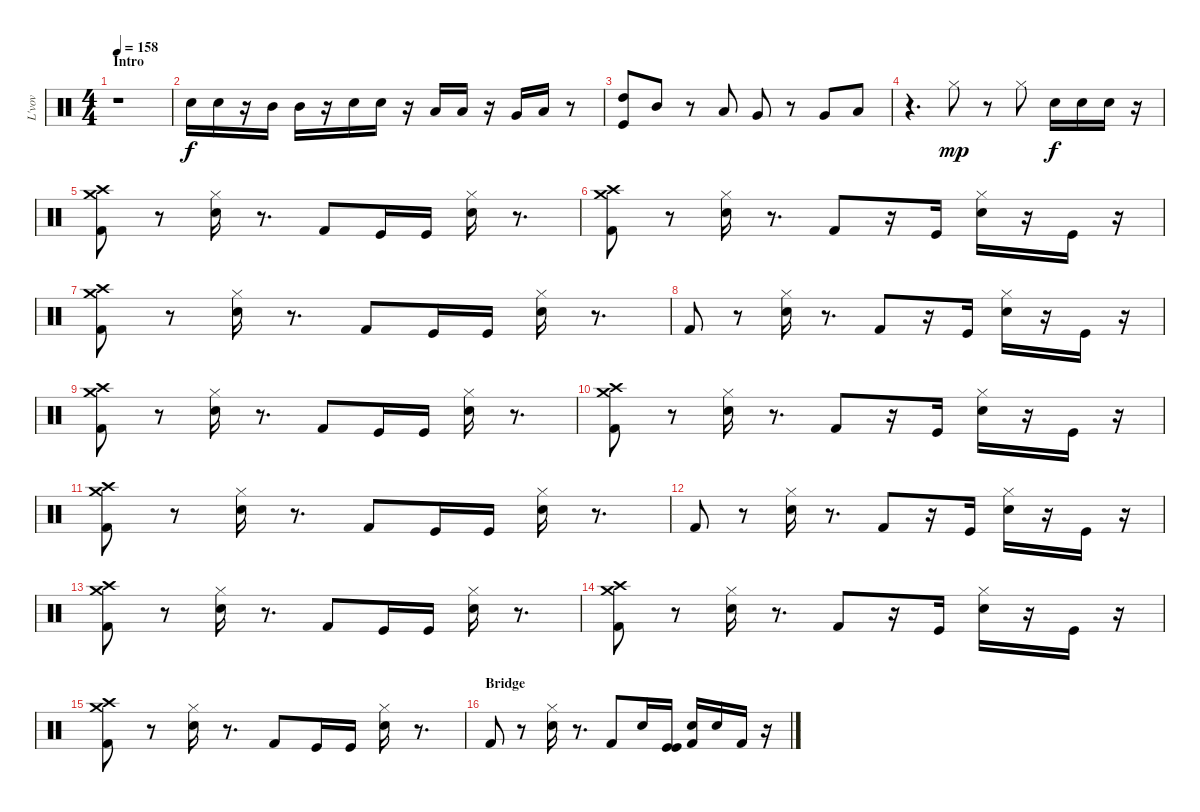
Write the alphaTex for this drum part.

\track ("L'vov " "L'vov ") {instrument percussion}
\staff {score}
\articulation defaults
\ts (4 4)
\section ("" "Intro")
\tempo 158
\clef neutral
\ks c
r.1{dy f} |
"Electric Snare (hit)".16 "Snare (hit) 2".16 r.16 "Mid Tom (hit)".16 "Mid Tom (hit)".16 r.16 "Electric Snare (hit)".16 "Electric Snare (hit)".16 r.16 "Low Tom (hit)".16 "Low Tom (hit)".16 r.16 "Very Low Tom (hit)".16 "Low Floor Tom (hit)".16 r.8 |
("Kick (hit)" "High Tom (hit)").8 "Mid Tom (hit)".8 r.8 "Low Tom (hit)".8 "Very Low Tom (hit)".8 r.8 "Very Low Tom (hit)".8 "Low Floor Tom (hit)".8 |
r.4{d} "Hi-Hat (closed)".8{dy mp} r.8 "Hi-Hat (closed)".8 "Snare (hit) 2".16{dy f} "Snare (hit) 2".16 "Snare (hit) 2".16 r.16 |
("Kick (hit) 2" "Crash high (hit)" "Crash medium (hit)").8 r.8 ("Snare (hit) 2" "Hi-Hat (closed)").16 r.8{d} "Kick (hit) 2".8 "Kick (hit)".16 "Kick (hit)".16 ("Snare (hit) 2" "Hi-Hat (closed)").16 r.8{d} |
("Kick (hit) 2" "Crash high (hit)" "Crash medium (hit)").8 r.8 ("Snare (hit) 2" "Hi-Hat (closed)").16 r.8{d} "Kick (hit) 2".8 r.16 "Kick (hit)".16 ("Electric Snare (hit)" "Hi-Hat (closed)").16 r.16 "Kick (hit)".16 r.16 |
("Kick (hit) 2" "Crash high (hit)" "Crash medium (hit)").8 r.8 ("Snare (hit) 2" "Hi-Hat (closed)").16 r.8{d} "Kick (hit) 2".8 "Kick (hit)".16 "Kick (hit)".16 ("Snare (hit) 2" "Hi-Hat (closed)").16 r.8{d} |
"Kick (hit) 2".8 r.8 ("Snare (hit) 2" "Hi-Hat (closed)").16 r.8{d} "Kick (hit) 2".8 r.16 "Kick (hit)".16 ("Electric Snare (hit)" "Hi-Hat (closed)").16 r.16 "Kick (hit)".16 r.16 |
("Kick (hit) 2" "Crash high (hit)" "Crash medium (hit)").8 r.8 ("Snare (hit) 2" "Hi-Hat (closed)").16 r.8{d} "Kick (hit) 2".8 "Kick (hit)".16 "Kick (hit)".16 ("Snare (hit) 2" "Hi-Hat (closed)").16 r.8{d} |
("Kick (hit) 2" "Crash high (hit)" "Crash medium (hit)").8 r.8 ("Snare (hit) 2" "Hi-Hat (closed)").16 r.8{d} "Kick (hit) 2".8 r.16 "Kick (hit)".16 ("Electric Snare (hit)" "Hi-Hat (closed)").16 r.16 "Kick (hit)".16 r.16 |
("Kick (hit) 2" "Crash high (hit)" "Crash medium (hit)").8 r.8 ("Snare (hit) 2" "Hi-Hat (closed)").16 r.8{d} "Kick (hit) 2".8 "Kick (hit)".16 "Kick (hit)".16 ("Snare (hit) 2" "Hi-Hat (closed)").16 r.8{d} |
"Kick (hit) 2".8 r.8 ("Snare (hit) 2" "Hi-Hat (closed)").16 r.8{d} "Kick (hit) 2".8 r.16 "Kick (hit)".16 ("Electric Snare (hit)" "Hi-Hat (closed)").16 r.16 "Kick (hit)".16 r.16 |
("Kick (hit) 2" "Crash high (hit)" "Crash medium (hit)").8 r.8 ("Snare (hit) 2" "Hi-Hat (closed)").16 r.8{d} "Kick (hit) 2".8 "Kick (hit)".16 "Kick (hit)".16 ("Snare (hit) 2" "Hi-Hat (closed)").16 r.8{d} |
("Kick (hit) 2" "Crash high (hit)" "Crash medium (hit)").8 r.8 ("Snare (hit) 2" "Hi-Hat (closed)").16 r.8{d} "Kick (hit) 2".8 r.16 "Kick (hit)".16 ("Electric Snare (hit)" "Hi-Hat (closed)").16 r.16 "Kick (hit)".16 r.16 |
("Kick (hit) 2" "Crash high (hit)" "Crash medium (hit)").8 r.8 ("Snare (hit) 2" "Hi-Hat (closed)").16 r.8{d} "Kick (hit) 2".8 "Kick (hit)".16 "Kick (hit)".16 ("Snare (hit) 2" "Hi-Hat (closed)").16 r.8{d} |
\section ("" "Bridge")
"Kick (hit) 2".8 r.8 ("Snare (hit) 2" "Hi-Hat (closed)").16 r.8{d} "Kick (hit) 2".8 "Electric Snare (hit)".16 ("Kick (hit)" "Kick (hit)").16 ("Electric Snare (hit)" "Kick (hit) 2").16 "Electric Snare (hit)".16 "Kick (hit) 2".16 r.16
